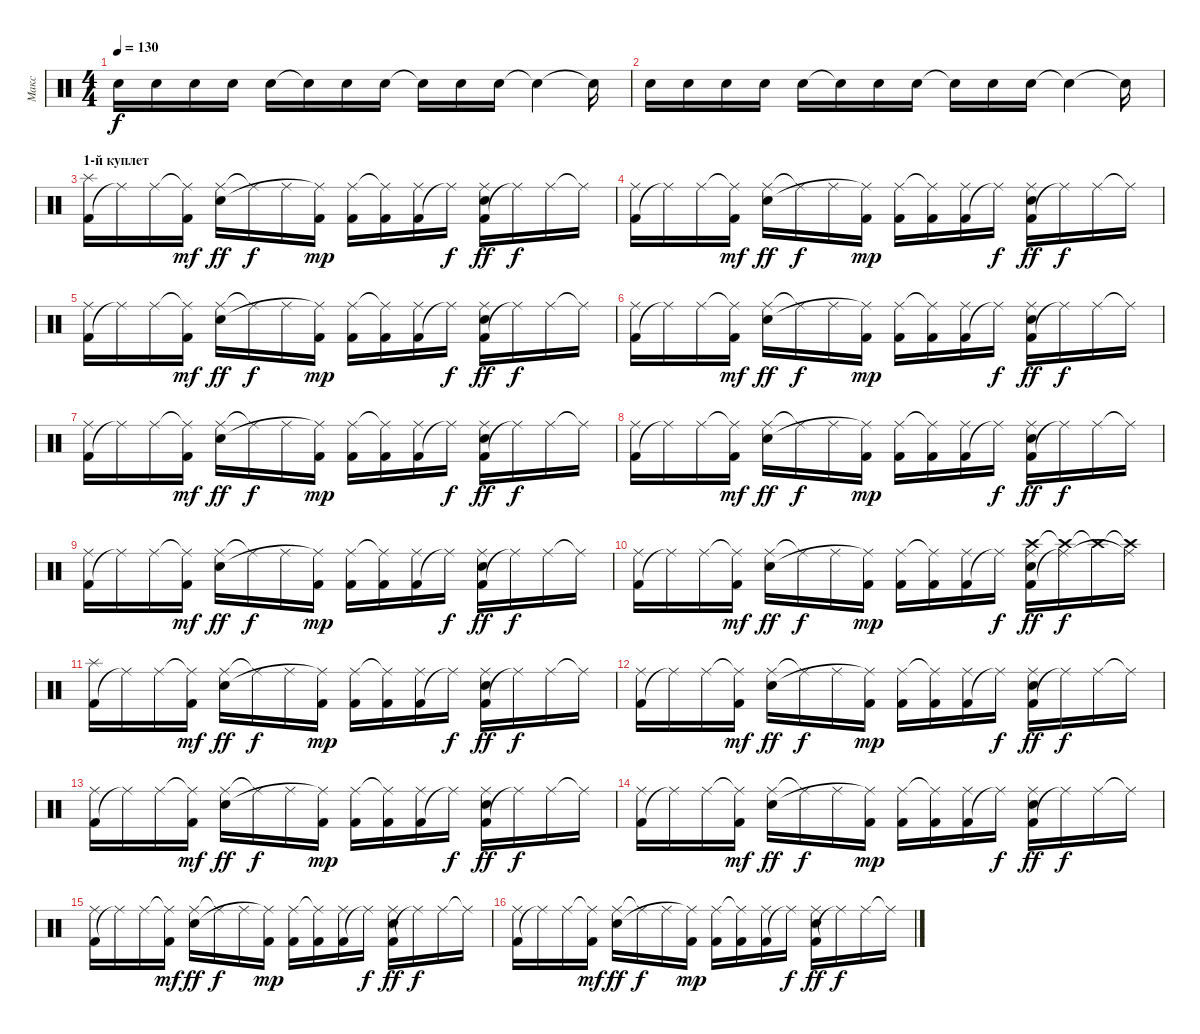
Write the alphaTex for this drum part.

\track ("Макс" "Макс") {instrument percussion}
\staff {score}
\articulation defaults
\ts (4 4)
\tempo 130
\clef neutral
\ks c "Electric Snare (hit)".16{dy f} "Electric Snare (hit)".16 "Electric Snare (hit)".16 "Electric Snare (hit)".16 "Electric Snare (hit)".16 "Snare (hit)"{t}.16 "Electric Snare (hit)".16 "Electric Snare (hit)".16 "Snare (hit)"{t}.16 "Electric Snare (hit)".16 "Electric Snare (hit)".16 "Snare (hit)"{t}.4 "Snare (hit)"{t}.16
|
"Electric Snare (hit)".16 "Electric Snare (hit)".16 "Electric Snare (hit)".16 "Electric Snare (hit)".16 "Electric Snare (hit)".16 "Snare (hit)"{t}.16 "Electric Snare (hit)".16 "Electric Snare (hit)".16 "Snare (hit)"{t}.16 "Electric Snare (hit)".16 "Electric Snare (hit)".16 "Snare (hit)"{t}.4 "Snare (hit)"{t}.16 |
\section ("" "1-й куплет")
("Kick (hit) 2" "Splash (hit)").16 "Ride (middle)"{t}.16 "Ride (middle)".16 ("Ride (middle)"{t} "Kick (hit) 2").16{dy mf} ("Ride (middle)" "Electric Snare (hit)").16{dy ff} "Ride (middle)"{t}.16{dy f} "Ride (middle)".16 ("Kick (hit) 2" "Ride (middle)"{t}).16{dy mp} ("Kick (hit) 2" "Ride (middle)").16 ("Kick (hit) 2" "Ride (middle)"{t}).16 ("Kick (hit) 2" "Ride (middle)").16 "Ride (middle)"{t}.16{dy f} ("Kick (hit) 2" "Ride (middle)" "Electric Snare (hit)").16{dy ff} "Ride (middle)"{t}.16{dy f} "Ride (middle)".16 "Ride (middle)"{t}.16 |
("Kick (hit) 2" "Ride (middle)").16 "Ride (middle)"{t}.16 "Ride (middle)".16 ("Ride (middle)"{t} "Kick (hit) 2").16{dy mf} ("Ride (middle)" "Electric Snare (hit)").16{dy ff} "Ride (middle)"{t}.16{dy f} "Ride (middle)".16 ("Kick (hit) 2" "Ride (middle)"{t}).16{dy mp} ("Kick (hit) 2" "Ride (middle)").16 ("Kick (hit) 2" "Ride (middle)"{t}).16 ("Kick (hit) 2" "Ride (middle)").16 "Ride (middle)"{t}.16{dy f} ("Kick (hit) 2" "Ride (middle)" "Electric Snare (hit)").16{dy ff} "Ride (middle)"{t}.16{dy f} "Ride (middle)".16 "Ride (middle)"{t}.16 |
("Kick (hit) 2" "Ride (middle)").16 "Ride (middle)"{t}.16 "Ride (middle)".16 ("Ride (middle)"{t} "Kick (hit) 2").16{dy mf} ("Ride (middle)" "Electric Snare (hit)").16{dy ff} "Ride (middle)"{t}.16{dy f} "Ride (middle)".16 ("Kick (hit) 2" "Ride (middle)"{t}).16{dy mp} ("Kick (hit) 2" "Ride (middle)").16 ("Kick (hit) 2" "Ride (middle)"{t}).16 ("Kick (hit) 2" "Ride (middle)").16 "Ride (middle)"{t}.16{dy f} ("Kick (hit) 2" "Ride (middle)" "Electric Snare (hit)").16{dy ff} "Ride (middle)"{t}.16{dy f} "Ride (middle)".16 "Ride (middle)"{t}.16 |
("Kick (hit) 2" "Ride (middle)").16 "Ride (middle)"{t}.16 "Ride (middle)".16 ("Ride (middle)"{t} "Kick (hit) 2").16{dy mf} ("Ride (middle)" "Electric Snare (hit)").16{dy ff} "Ride (middle)"{t}.16{dy f} "Ride (middle)".16 ("Kick (hit) 2" "Ride (middle)"{t}).16{dy mp} ("Kick (hit) 2" "Ride (middle)").16 ("Kick (hit) 2" "Ride (middle)"{t}).16 ("Kick (hit) 2" "Ride (middle)").16 "Ride (middle)"{t}.16{dy f} ("Kick (hit) 2" "Ride (middle)" "Electric Snare (hit)").16{dy ff} "Ride (middle)"{t}.16{dy f} "Ride (middle)".16 "Ride (middle)"{t}.16 |
("Kick (hit) 2" "Ride (middle)").16 "Ride (middle)"{t}.16 "Ride (middle)".16 ("Ride (middle)"{t} "Kick (hit) 2").16{dy mf} ("Ride (middle)" "Electric Snare (hit)").16{dy ff} "Ride (middle)"{t}.16{dy f} "Ride (middle)".16 ("Kick (hit) 2" "Ride (middle)"{t}).16{dy mp} ("Kick (hit) 2" "Ride (middle)").16 ("Kick (hit) 2" "Ride (middle)"{t}).16 ("Kick (hit) 2" "Ride (middle)").16 "Ride (middle)"{t}.16{dy f} ("Kick (hit) 2" "Ride (middle)" "Electric Snare (hit)").16{dy ff} "Ride (middle)"{t}.16{dy f} "Ride (middle)".16 "Ride (middle)"{t}.16 |
("Kick (hit) 2" "Ride (middle)").16 "Ride (middle)"{t}.16 "Ride (middle)".16 ("Ride (middle)"{t} "Kick (hit) 2").16{dy mf} ("Ride (middle)" "Electric Snare (hit)").16{dy ff} "Ride (middle)"{t}.16{dy f} "Ride (middle)".16 ("Kick (hit) 2" "Ride (middle)"{t}).16{dy mp} ("Kick (hit) 2" "Ride (middle)").16 ("Kick (hit) 2" "Ride (middle)"{t}).16 ("Kick (hit) 2" "Ride (middle)").16 "Ride (middle)"{t}.16{dy f} ("Kick (hit) 2" "Ride (middle)" "Electric Snare (hit)").16{dy ff} "Ride (middle)"{t}.16{dy f} "Ride (middle)".16 "Ride (middle)"{t}.16 |
("Kick (hit) 2" "Ride (middle)").16 "Ride (middle)"{t}.16 "Ride (middle)".16 ("Ride (middle)"{t} "Kick (hit) 2").16{dy mf} ("Ride (middle)" "Electric Snare (hit)").16{dy ff} "Ride (middle)"{t}.16{dy f} "Ride (middle)".16 ("Kick (hit) 2" "Ride (middle)"{t}).16{dy mp} ("Kick (hit) 2" "Ride (middle)").16 ("Kick (hit) 2" "Ride (middle)"{t}).16 ("Kick (hit) 2" "Ride (middle)").16 "Ride (middle)"{t}.16{dy f} ("Kick (hit) 2" "Ride (middle)" "Electric Snare (hit)").16{dy ff} "Ride (middle)"{t}.16{dy f} "Ride (middle)".16 "Ride (middle)"{t}.16 |
("Kick (hit) 2" "Ride (middle)").16 "Ride (middle)"{t}.16 "Ride (middle)".16 ("Ride (middle)"{t} "Kick (hit) 2").16{dy mf} ("Ride (middle)" "Electric Snare (hit)").16{dy ff} "Ride (middle)"{t}.16{dy f} "Ride (middle)".16 ("Kick (hit) 2" "Ride (middle)"{t}).16{dy mp} ("Kick (hit) 2" "Ride (middle)").16 ("Kick (hit) 2" "Ride (middle)"{t}).16 ("Kick (hit) 2" "Ride (middle)").16 "Ride (middle)"{t}.16{dy f} ("Crash high (hit)" "Kick (hit) 2" "Ride (middle)" "Electric Snare (hit)").16{dy ff} ("Crash high (hit)"{t} "Ride (middle)"{t}).16{dy f} "Crash high (hit)"{t}.16 ("Crash high (hit)"{t} "Ride (middle)"{t}).16 |
("Kick (hit) 2" "Splash (hit)").16 "Ride (middle)"{t}.16 "Ride (middle)".16 ("Ride (middle)"{t} "Kick (hit) 2").16{dy mf} ("Ride (middle)" "Electric Snare (hit)").16{dy ff} "Ride (middle)"{t}.16{dy f} "Ride (middle)".16 ("Kick (hit) 2" "Ride (middle)"{t}).16{dy mp} ("Kick (hit) 2" "Ride (middle)").16 ("Kick (hit) 2" "Ride (middle)"{t}).16 ("Kick (hit) 2" "Ride (middle)").16 "Ride (middle)"{t}.16{dy f} ("Kick (hit) 2" "Ride (middle)" "Electric Snare (hit)").16{dy ff} "Ride (middle)"{t}.16{dy f} "Ride (middle)".16 "Ride (middle)"{t}.16 |
("Kick (hit) 2" "Ride (middle)").16 "Ride (middle)"{t}.16 "Ride (middle)".16 ("Ride (middle)"{t} "Kick (hit) 2").16{dy mf} ("Ride (middle)" "Electric Snare (hit)").16{dy ff} "Ride (middle)"{t}.16{dy f} "Ride (middle)".16 ("Kick (hit) 2" "Ride (middle)"{t}).16{dy mp} ("Kick (hit) 2" "Ride (middle)").16 ("Kick (hit) 2" "Ride (middle)"{t}).16 ("Kick (hit) 2" "Ride (middle)").16 "Ride (middle)"{t}.16{dy f} ("Kick (hit) 2" "Ride (middle)" "Electric Snare (hit)").16{dy ff} "Ride (middle)"{t}.16{dy f} "Ride (middle)".16 "Ride (middle)"{t}.16 |
("Kick (hit) 2" "Ride (middle)").16 "Ride (middle)"{t}.16 "Ride (middle)".16 ("Ride (middle)"{t} "Kick (hit) 2").16{dy mf} ("Ride (middle)" "Electric Snare (hit)").16{dy ff} "Ride (middle)"{t}.16{dy f} "Ride (middle)".16 ("Kick (hit) 2" "Ride (middle)"{t}).16{dy mp} ("Kick (hit) 2" "Ride (middle)").16 ("Kick (hit) 2" "Ride (middle)"{t}).16 ("Kick (hit) 2" "Ride (middle)").16 "Ride (middle)"{t}.16{dy f} ("Kick (hit) 2" "Ride (middle)" "Electric Snare (hit)").16{dy ff} "Ride (middle)"{t}.16{dy f} "Ride (middle)".16 "Ride (middle)"{t}.16 |
("Kick (hit) 2" "Ride (middle)").16 "Ride (middle)"{t}.16 "Ride (middle)".16 ("Ride (middle)"{t} "Kick (hit) 2").16{dy mf} ("Ride (middle)" "Electric Snare (hit)").16{dy ff} "Ride (middle)"{t}.16{dy f} "Ride (middle)".16 ("Kick (hit) 2" "Ride (middle)"{t}).16{dy mp} ("Kick (hit) 2" "Ride (middle)").16 ("Kick (hit) 2" "Ride (middle)"{t}).16 ("Kick (hit) 2" "Ride (middle)").16 "Ride (middle)"{t}.16{dy f} ("Kick (hit) 2" "Ride (middle)" "Electric Snare (hit)").16{dy ff} "Ride (middle)"{t}.16{dy f} "Ride (middle)".16 "Ride (middle)"{t}.16 |
("Kick (hit) 2" "Ride (middle)").16 "Ride (middle)"{t}.16 "Ride (middle)".16 ("Ride (middle)"{t} "Kick (hit) 2").16{dy mf} ("Ride (middle)" "Electric Snare (hit)").16{dy ff} "Ride (middle)"{t}.16{dy f} "Ride (middle)".16 ("Kick (hit) 2" "Ride (middle)"{t}).16{dy mp} ("Kick (hit) 2" "Ride (middle)").16 ("Kick (hit) 2" "Ride (middle)"{t}).16 ("Kick (hit) 2" "Ride (middle)").16 "Ride (middle)"{t}.16{dy f} ("Kick (hit) 2" "Ride (middle)" "Electric Snare (hit)").16{dy ff} "Ride (middle)"{t}.16{dy f} "Ride (middle)".16 "Ride (middle)"{t}.16 |
("Kick (hit) 2" "Ride (middle)").16 "Ride (middle)"{t}.16 "Ride (middle)".16 ("Ride (middle)"{t} "Kick (hit) 2").16{dy mf} ("Ride (middle)" "Electric Snare (hit)").16{dy ff} "Ride (middle)"{t}.16{dy f} "Ride (middle)".16 ("Kick (hit) 2" "Ride (middle)"{t}).16{dy mp} ("Kick (hit) 2" "Ride (middle)").16 ("Kick (hit) 2" "Ride (middle)"{t}).16 ("Kick (hit) 2" "Ride (middle)").16 "Ride (middle)"{t}.16{dy f} ("Kick (hit) 2" "Ride (middle)" "Electric Snare (hit)").16{dy ff} "Ride (middle)"{t}.16{dy f} "Ride (middle)".16 "Ride (middle)"{t}.16
